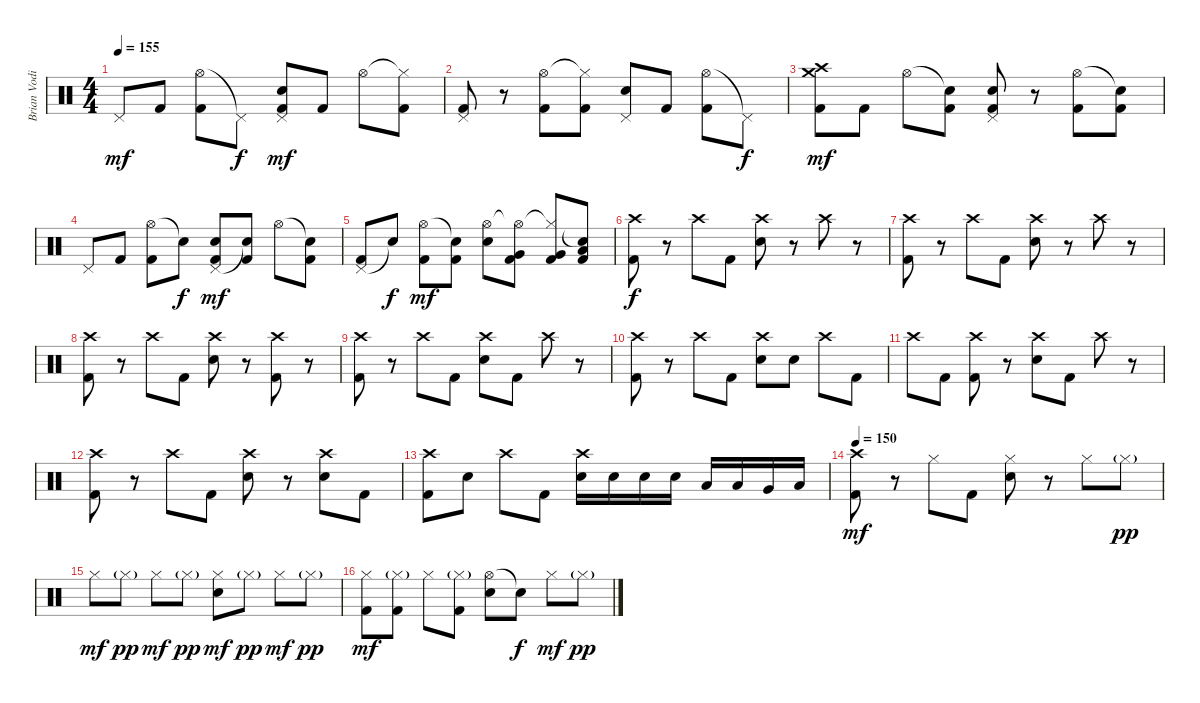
\track ("Brian Vodinh" "Brian Vodi") {instrument percussion}
\staff {score}
\articulation defaults
\ts (4 4)
\tempo 155
\clef neutral
\ks c "Pedal Hi-Hat (hit)".8{dy mf} "Kick (hit) 2".8
("Hi-Hat (open)" "Kick (hit) 2").8 "Pedal Hi-Hat (hit)"{t}.8{dy f} ("Pedal Hi-Hat (hit)" "Electric Snare (hit)" "Kick (hit) 2").8{dy mf} "Kick (hit) 2".8 "Hi-Hat (open)".8 ("Hi-Hat (closed)"{t} "Kick (hit) 2").8 |
("Pedal Hi-Hat (hit)" "Kick (hit) 2").8 r.8 ("Hi-Hat (open)" "Kick (hit) 2").8 ("Hi-Hat (closed)"{t} "Kick (hit) 2").8 ("Pedal Hi-Hat (hit)" "Electric Snare (hit)").8 "Kick (hit) 2".8 ("Hi-Hat (open)" "Kick (hit) 2").8 "Pedal Hi-Hat (hit)"{t}.8{dy f} |
("Crash medium (hit)" "Crash high (hit)" "Kick (hit) 2").8{dy mf} "Kick (hit) 2".8 "Hi-Hat (open)".8 ("Snare (hit)"{t} "Kick (hit) 2").8 ("Pedal Hi-Hat (hit)" "Electric Snare (hit)" "Kick (hit) 2").8 r.8 ("Hi-Hat (open)" "Kick (hit) 2").8 ("Snare (hit)"{t} "Kick (hit) 2").8 |
"Pedal Hi-Hat (hit)".8 "Kick (hit) 2".8 ("Hi-Hat (open)" "Kick (hit) 2").8 "Snare (hit)"{t}.8{dy f} ("Pedal Hi-Hat (hit)" "Electric Snare (hit)" "Kick (hit) 2").8{dy mf} ("Snare (hit)"{t} "Kick (hit) 2").8 "Hi-Hat (open)".8 ("Snare (hit)"{t} "Kick (hit) 2").8 |
("Pedal Hi-Hat (hit)" "Kick (hit) 2").8 "Snare (hit)"{t}.8{dy f} ("Hi-Hat (open)" "Kick (hit) 2").8{dy mf} ("Snare (hit)"{t} "Kick (hit) 2").8 ("Hi-Hat (open)" "Electric Snare (hit)").8 ("Hi-Hat (open)"{t} "Very Low Tom (hit)" "Kick (hit) 2").8 ("Hi-Hat (closed)"{t} "Very Low Tom (hit)" "Kick (hit) 2").8 ("Snare (hit)"{t} "Low Floor Tom (hit)" "Kick (hit) 2").8 |
("Crash high (hit)" "Kick (hit) 2").8{dy f} r.8 "Crash high (hit)".8 "Kick (hit) 2".8 ("Crash high (hit)" "Electric Snare (hit)").8 r.8 "Crash high (hit)".8 r.8 |
("Crash high (hit)" "Kick (hit) 2").8 r.8 "Crash high (hit)".8 "Kick (hit) 2".8 ("Crash high (hit)" "Electric Snare (hit)").8 r.8 "Crash high (hit)".8 r.8 |
("Crash high (hit)" "Kick (hit) 2").8 r.8 "Crash high (hit)".8 "Kick (hit) 2".8 ("Crash high (hit)" "Electric Snare (hit)").8 r.8 ("Crash high (hit)" "Kick (hit) 2").8 r.8 |
("Crash high (hit)" "Kick (hit) 2").8 r.8 "Crash high (hit)".8 "Kick (hit) 2".8 ("Crash high (hit)" "Electric Snare (hit)").8 "Kick (hit) 2".8 "Crash high (hit)".8 r.8 |
("Crash high (hit)" "Kick (hit) 2").8 r.8 "Crash high (hit)".8 "Kick (hit) 2".8 ("Crash high (hit)" "Electric Snare (hit)").8 "Electric Snare (hit)".8 "Crash high (hit)".8 "Kick (hit) 2".8 |
"Crash high (hit)".8 "Kick (hit) 2".8 ("Crash high (hit)" "Kick (hit) 2").8 r.8 ("Crash high (hit)" "Electric Snare (hit)").8 "Kick (hit) 2".8 "Crash high (hit)".8 r.8 |
("Crash high (hit)" "Kick (hit) 2").8 r.8 "Crash high (hit)".8 "Kick (hit) 2".8 ("Crash high (hit)" "Electric Snare (hit)").8 r.8 ("Crash high (hit)" "Electric Snare (hit)").8 "Kick (hit) 2".8 |
("Crash high (hit)" "Kick (hit) 2").8 "Electric Snare (hit)".8 "Crash high (hit)".8 "Kick (hit) 2".8 ("Crash high (hit)" "Electric Snare (hit)").16 "Electric Snare (hit)".16 "Electric Snare (hit)".16 "Electric Snare (hit)".16 "Low Tom (hit)".16 "Low Tom (hit)".16 "Very Low Tom (hit)".16 "Low Floor Tom (hit)".16 |
\tempo 150
("Crash high (hit)" "Kick (hit) 2").8{dy mf} r.8 "Hi-Hat (closed)".8 "Kick (hit) 2".8 ("Hi-Hat (closed)" "Electric Snare (hit)").8 r.8 "Hi-Hat (closed)".8 "Hi-Hat (closed)"{g}.8{dy pp} |
"Hi-Hat (closed)".8{dy mf} "Hi-Hat (closed)"{g}.8{dy pp} "Hi-Hat (closed)".8{dy mf} "Hi-Hat (closed)"{g}.8{dy pp} ("Hi-Hat (closed)" "Electric Snare (hit)").8{dy mf} "Hi-Hat (closed)"{g}.8{dy pp} "Hi-Hat (closed)".8{dy mf} "Hi-Hat (closed)"{g}.8{dy pp} |
("Hi-Hat (closed)" "Kick (hit) 2").8{dy mf} ("Hi-Hat (closed)"{g} "Kick (hit) 2").8 "Hi-Hat (closed)".8 ("Hi-Hat (closed)"{g} "Kick (hit) 2").8 ("Hi-Hat (open)" "Electric Snare (hit)").8 "Snare (hit)"{t}.8{dy f} "Hi-Hat (closed)".8{dy mf} "Hi-Hat (closed)"{g}.8{dy pp}
